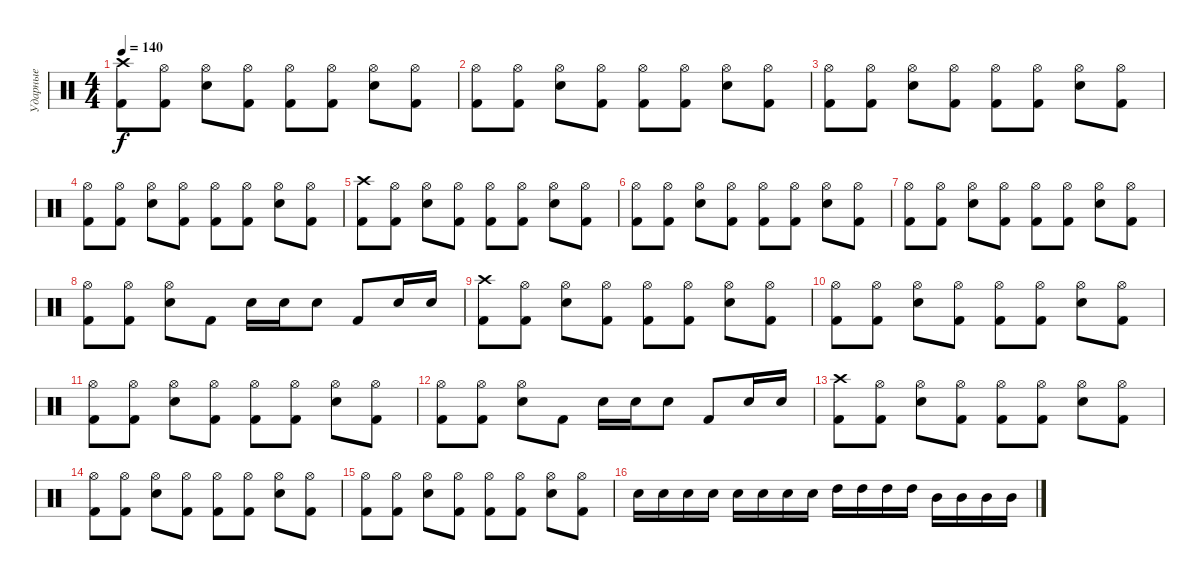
\track ("Ударные" "Ударные") {instrument percussion}
\staff {score}
\articulation defaults
\ts (4 4)
\tempo 140
\clef neutral
\ks c
("Crash high (hit)" "Kick (hit) 2").8{dy f} ("Hi-Hat (open)" "Kick (hit) 2").8 ("Hi-Hat (open)" "Snare (hit) 2").8 ("Hi-Hat (open)" "Kick (hit) 2").8 ("Hi-Hat (open)" "Kick (hit) 2").8 ("Hi-Hat (open)" "Kick (hit) 2").8 ("Hi-Hat (open)" "Snare (hit) 2").8 ("Hi-Hat (open)" "Kick (hit) 2").8 |
("Hi-Hat (open)" "Kick (hit) 2").8 ("Hi-Hat (open)" "Kick (hit) 2").8 ("Hi-Hat (open)" "Snare (hit) 2").8 ("Hi-Hat (open)" "Kick (hit) 2").8 ("Hi-Hat (open)" "Kick (hit) 2").8 ("Hi-Hat (open)" "Kick (hit) 2").8 ("Hi-Hat (open)" "Snare (hit) 2").8 ("Hi-Hat (open)" "Kick (hit) 2").8 |
("Hi-Hat (open)" "Kick (hit) 2").8 ("Hi-Hat (open)" "Kick (hit) 2").8 ("Hi-Hat (open)" "Snare (hit) 2").8 ("Hi-Hat (open)" "Kick (hit) 2").8 ("Hi-Hat (open)" "Kick (hit) 2").8 ("Hi-Hat (open)" "Kick (hit) 2").8 ("Hi-Hat (open)" "Snare (hit) 2").8 ("Hi-Hat (open)" "Kick (hit) 2").8 |
("Hi-Hat (open)" "Kick (hit) 2").8 ("Hi-Hat (open)" "Kick (hit) 2").8 ("Hi-Hat (open)" "Snare (hit) 2").8 ("Hi-Hat (open)" "Kick (hit) 2").8 ("Hi-Hat (open)" "Kick (hit) 2").8 ("Hi-Hat (open)" "Kick (hit) 2").8 ("Hi-Hat (open)" "Snare (hit) 2").8 ("Hi-Hat (open)" "Kick (hit) 2").8 |
("Crash high (hit)" "Kick (hit) 2").8 ("Hi-Hat (open)" "Kick (hit) 2").8 ("Hi-Hat (open)" "Snare (hit) 2").8 ("Hi-Hat (open)" "Kick (hit) 2").8 ("Hi-Hat (open)" "Kick (hit) 2").8 ("Hi-Hat (open)" "Kick (hit) 2").8 ("Hi-Hat (open)" "Snare (hit) 2").8 ("Hi-Hat (open)" "Kick (hit) 2").8 |
("Hi-Hat (open)" "Kick (hit) 2").8 ("Hi-Hat (open)" "Kick (hit) 2").8 ("Hi-Hat (open)" "Snare (hit) 2").8 ("Hi-Hat (open)" "Kick (hit) 2").8 ("Hi-Hat (open)" "Kick (hit) 2").8 ("Hi-Hat (open)" "Kick (hit) 2").8 ("Hi-Hat (open)" "Snare (hit) 2").8 ("Hi-Hat (open)" "Kick (hit) 2").8 |
("Hi-Hat (open)" "Kick (hit) 2").8 ("Hi-Hat (open)" "Kick (hit) 2").8 ("Hi-Hat (open)" "Snare (hit) 2").8 ("Hi-Hat (open)" "Kick (hit) 2").8 ("Hi-Hat (open)" "Kick (hit) 2").8 ("Hi-Hat (open)" "Kick (hit) 2").8 ("Hi-Hat (open)" "Snare (hit) 2").8 ("Hi-Hat (open)" "Kick (hit) 2").8 |
("Hi-Hat (open)" "Kick (hit) 2").8 ("Hi-Hat (open)" "Kick (hit) 2").8 ("Hi-Hat (open)" "Snare (hit) 2").8 "Kick (hit) 2".8 "Snare (hit) 2".16 "Snare (hit) 2".16 "Snare (hit) 2".8 "Kick (hit) 2".8 "Snare (hit) 2".16 "Snare (hit) 2".16 |
("Crash high (hit)" "Kick (hit) 2").8 ("Hi-Hat (open)" "Kick (hit) 2").8 ("Hi-Hat (open)" "Snare (hit) 2").8 ("Hi-Hat (open)" "Kick (hit) 2").8 ("Hi-Hat (open)" "Kick (hit) 2").8 ("Hi-Hat (open)" "Kick (hit) 2").8 ("Hi-Hat (open)" "Snare (hit) 2").8 ("Hi-Hat (open)" "Kick (hit) 2").8 |
("Hi-Hat (open)" "Kick (hit) 2").8 ("Hi-Hat (open)" "Kick (hit) 2").8 ("Hi-Hat (open)" "Snare (hit) 2").8 ("Hi-Hat (open)" "Kick (hit) 2").8 ("Hi-Hat (open)" "Kick (hit) 2").8 ("Hi-Hat (open)" "Kick (hit) 2").8 ("Hi-Hat (open)" "Snare (hit) 2").8 ("Hi-Hat (open)" "Kick (hit) 2").8 |
("Hi-Hat (open)" "Kick (hit) 2").8 ("Hi-Hat (open)" "Kick (hit) 2").8 ("Hi-Hat (open)" "Snare (hit) 2").8 ("Hi-Hat (open)" "Kick (hit) 2").8 ("Hi-Hat (open)" "Kick (hit) 2").8 ("Hi-Hat (open)" "Kick (hit) 2").8 ("Hi-Hat (open)" "Snare (hit) 2").8 ("Hi-Hat (open)" "Kick (hit) 2").8 |
("Hi-Hat (open)" "Kick (hit) 2").8 ("Hi-Hat (open)" "Kick (hit) 2").8 ("Hi-Hat (open)" "Snare (hit) 2").8 "Kick (hit) 2".8 "Snare (hit) 2".16 "Snare (hit) 2".16 "Snare (hit) 2".8 "Kick (hit) 2".8 "Snare (hit) 2".16 "Snare (hit) 2".16 |
("Crash high (hit)" "Kick (hit) 2").8 ("Hi-Hat (open)" "Kick (hit) 2").8 ("Hi-Hat (open)" "Snare (hit) 2").8 ("Hi-Hat (open)" "Kick (hit) 2").8 ("Hi-Hat (open)" "Kick (hit) 2").8 ("Hi-Hat (open)" "Kick (hit) 2").8 ("Hi-Hat (open)" "Snare (hit) 2").8 ("Hi-Hat (open)" "Kick (hit) 2").8 |
("Hi-Hat (open)" "Kick (hit) 2").8 ("Hi-Hat (open)" "Kick (hit) 2").8 ("Hi-Hat (open)" "Snare (hit) 2").8 ("Hi-Hat (open)" "Kick (hit) 2").8 ("Hi-Hat (open)" "Kick (hit) 2").8 ("Hi-Hat (open)" "Kick (hit) 2").8 ("Hi-Hat (open)" "Snare (hit) 2").8 ("Hi-Hat (open)" "Kick (hit) 2").8 |
("Hi-Hat (open)" "Kick (hit) 2").8 ("Hi-Hat (open)" "Kick (hit) 2").8 ("Hi-Hat (open)" "Snare (hit) 2").8 ("Hi-Hat (open)" "Kick (hit) 2").8 ("Hi-Hat (open)" "Kick (hit) 2").8 ("Hi-Hat (open)" "Kick (hit) 2").8 ("Hi-Hat (open)" "Snare (hit) 2").8 ("Hi-Hat (open)" "Kick (hit) 2").8 |
"Snare (hit) 2".16 "Snare (hit) 2".16 "Snare (hit) 2".16 "Snare (hit) 2".16 "Snare (hit) 2".16 "Snare (hit) 2".16 "Snare (hit) 2".16 "Snare (hit) 2".16 "High Tom (hit)".16 "High Tom (hit)".16 "High Tom (hit)".16 "High Tom (hit)".16 "Mid Tom (hit)".16 "Mid Tom (hit)".16 "Mid Tom (hit)".16 "Mid Tom (hit)".16
